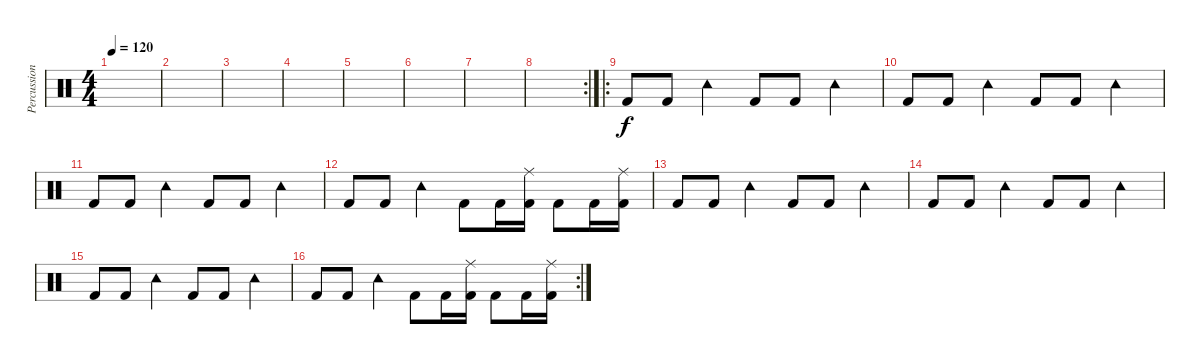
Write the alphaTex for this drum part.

\track ("Percussion" "Percussion") {instrument percussion}
\staff {score}
\articulation defaults
\ts (4 4)
\tempo 120
\clef neutral
\ks c
|
|
|
|
|
|
|
\rc 2
|
\ro "Kick (hit) 2".8 "Kick (hit) 2".8 "Tambourine (hit)".4 "Kick (hit) 2".8 "Kick (hit) 2".8 "Tambourine (hit)".4
|
"Kick (hit) 2".8 "Kick (hit) 2".8 "Tambourine (hit)".4 "Kick (hit) 2".8 "Kick (hit) 2".8 "Tambourine (hit)".4 |
"Kick (hit) 2".8 "Kick (hit) 2".8 "Tambourine (hit)".4 "Kick (hit) 2".8 "Kick (hit) 2".8 "Tambourine (hit)".4 |
"Kick (hit) 2".8 "Kick (hit) 2".8 "Tambourine (hit)".4 "Kick (hit) 2".8 "Kick (hit) 2".16 ("Ride (middle)" "Kick (hit) 2").16 "Kick (hit) 2".8 "Kick (hit) 2".16 ("Ride (middle)" "Kick (hit) 2").16 |
"Kick (hit) 2".8 "Kick (hit) 2".8 "Tambourine (hit)".4 "Kick (hit) 2".8 "Kick (hit) 2".8 "Tambourine (hit)".4 |
"Kick (hit) 2".8 "Kick (hit) 2".8 "Tambourine (hit)".4 "Kick (hit) 2".8 "Kick (hit) 2".8 "Tambourine (hit)".4 |
"Kick (hit) 2".8 "Kick (hit) 2".8 "Tambourine (hit)".4 "Kick (hit) 2".8 "Kick (hit) 2".8 "Tambourine (hit)".4 |
\rc 2 "Kick (hit) 2".8 "Kick (hit) 2".8 "Tambourine (hit)".4 "Kick (hit) 2".8 "Kick (hit) 2".16
("Ride (middle)" "Kick (hit) 2").16 "Kick (hit) 2".8 "Kick (hit) 2".16 ("Ride (middle)" "Kick (hit) 2").16
